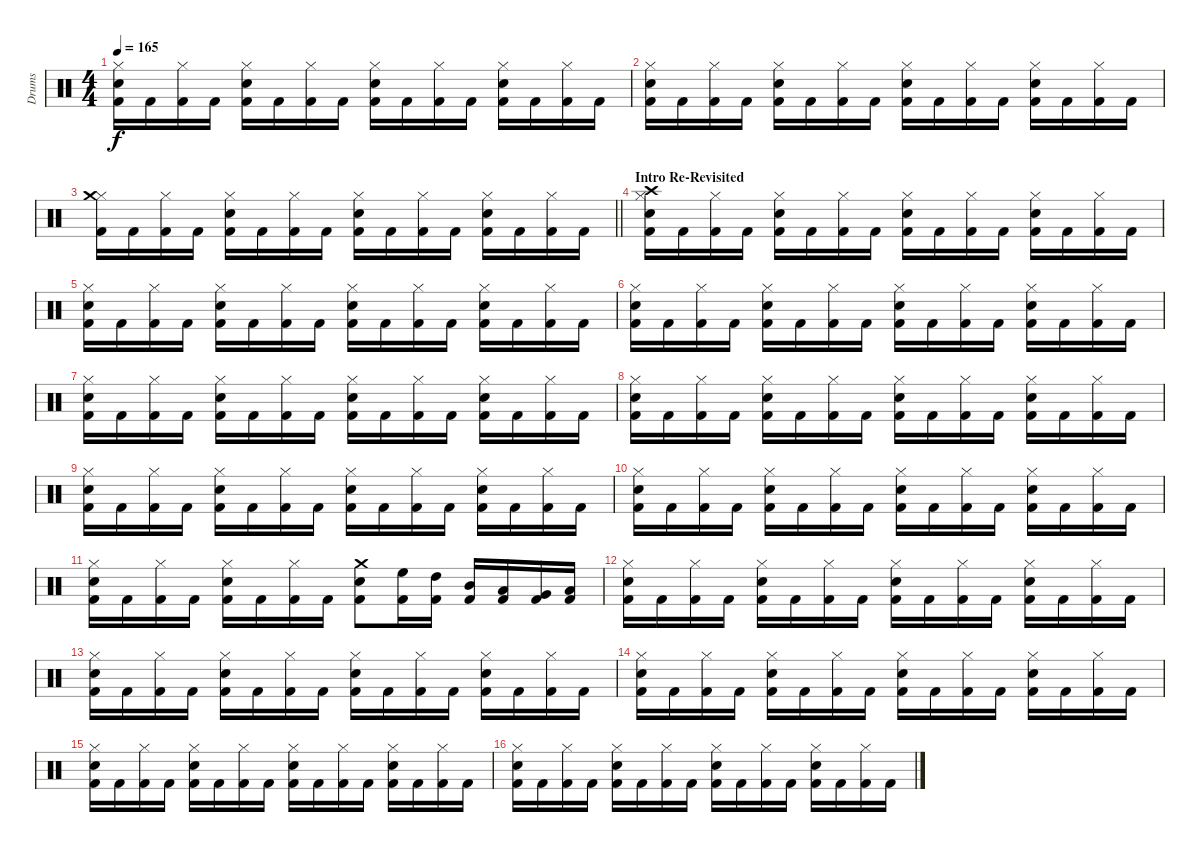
\track ("Drums" "Drums") {instrument percussion}
\staff {score}
\articulation defaults
\ts (4 4)
\tempo 165
\clef neutral
\ks c
("Hi-Hat (closed)" "Snare (hit) 2" "Kick (hit) 2").16{dy f} "Kick (hit) 2".16 ("Hi-Hat (closed)" "Kick (hit) 2").16 "Kick (hit) 2".16 ("Hi-Hat (closed)" "Snare (hit) 2" "Kick (hit) 2").16 "Kick (hit) 2".16 ("Hi-Hat (closed)" "Kick (hit) 2").16 "Kick (hit) 2".16 ("Hi-Hat (closed)" "Snare (hit) 2" "Kick (hit) 2").16 "Kick (hit) 2".16 ("Hi-Hat (closed)" "Kick (hit) 2").16 "Kick (hit) 2".16 ("Hi-Hat (closed)" "Snare (hit) 2" "Kick (hit) 2").16 "Kick (hit) 2".16 ("Hi-Hat (closed)" "Kick (hit) 2").16 "Kick (hit) 2".16 |
("Hi-Hat (closed)" "Snare (hit) 2" "Kick (hit) 2").16 "Kick (hit) 2".16 ("Hi-Hat (closed)" "Kick (hit) 2").16 "Kick (hit) 2".16 ("Hi-Hat (closed)" "Snare (hit) 2" "Kick (hit) 2").16 "Kick (hit) 2".16 ("Hi-Hat (closed)" "Kick (hit) 2").16 "Kick (hit) 2".16 ("Hi-Hat (closed)" "Snare (hit) 2" "Kick (hit) 2").16 "Kick (hit) 2".16 ("Hi-Hat (closed)" "Kick (hit) 2").16 "Kick (hit) 2".16 ("Hi-Hat (closed)" "Snare (hit) 2" "Kick (hit) 2").16 "Kick (hit) 2".16 ("Hi-Hat (closed)" "Kick (hit) 2").16 "Kick (hit) 2".16 |
\barLineRight lightlight
("Hi-Hat (closed)" "Crash medium (hit)" "Kick (hit) 2").16 "Kick (hit) 2".16 ("Hi-Hat (closed)" "Kick (hit) 2").16 "Kick (hit) 2".16 ("Hi-Hat (closed)" "Snare (hit) 2" "Kick (hit) 2").16 "Kick (hit) 2".16 ("Hi-Hat (closed)" "Kick (hit) 2").16 "Kick (hit) 2".16 ("Hi-Hat (closed)" "Snare (hit) 2" "Kick (hit) 2").16 "Kick (hit) 2".16 ("Hi-Hat (closed)" "Kick (hit) 2").16 "Kick (hit) 2".16 ("Hi-Hat (closed)" "Snare (hit) 2" "Kick (hit) 2").16 "Kick (hit) 2".16 ("Hi-Hat (closed)" "Kick (hit) 2").16 "Kick (hit) 2".16 |
\section ("" "Intro Re-Revisited")
("Hi-Hat (closed)" "Snare (hit) 2" "Crash high (hit)" "Kick (hit) 2").16 "Kick (hit) 2".16 ("Hi-Hat (closed)" "Kick (hit) 2").16 "Kick (hit) 2".16 ("Hi-Hat (closed)" "Snare (hit) 2" "Kick (hit) 2").16 "Kick (hit) 2".16 ("Hi-Hat (closed)" "Kick (hit) 2").16 "Kick (hit) 2".16 ("Hi-Hat (closed)" "Snare (hit) 2" "Kick (hit) 2").16 "Kick (hit) 2".16 ("Hi-Hat (closed)" "Kick (hit) 2").16 "Kick (hit) 2".16 ("Hi-Hat (closed)" "Snare (hit) 2" "Kick (hit) 2").16 "Kick (hit) 2".16 ("Hi-Hat (closed)" "Kick (hit) 2").16 "Kick (hit) 2".16 |
("Hi-Hat (closed)" "Snare (hit) 2" "Kick (hit) 2").16 "Kick (hit) 2".16 ("Hi-Hat (closed)" "Kick (hit) 2").16 "Kick (hit) 2".16 ("Hi-Hat (closed)" "Snare (hit) 2" "Kick (hit) 2").16 "Kick (hit) 2".16 ("Hi-Hat (closed)" "Kick (hit) 2").16 "Kick (hit) 2".16 ("Hi-Hat (closed)" "Snare (hit) 2" "Kick (hit) 2").16 "Kick (hit) 2".16 ("Hi-Hat (closed)" "Kick (hit) 2").16 "Kick (hit) 2".16 ("Hi-Hat (closed)" "Snare (hit) 2" "Kick (hit) 2").16 "Kick (hit) 2".16 ("Hi-Hat (closed)" "Kick (hit) 2").16 "Kick (hit) 2".16 |
("Hi-Hat (closed)" "Snare (hit) 2" "Kick (hit) 2").16 "Kick (hit) 2".16 ("Hi-Hat (closed)" "Kick (hit) 2").16 "Kick (hit) 2".16 ("Hi-Hat (closed)" "Snare (hit) 2" "Kick (hit) 2").16 "Kick (hit) 2".16 ("Hi-Hat (closed)" "Kick (hit) 2").16 "Kick (hit) 2".16 ("Hi-Hat (closed)" "Snare (hit) 2" "Kick (hit) 2").16 "Kick (hit) 2".16 ("Hi-Hat (closed)" "Kick (hit) 2").16 "Kick (hit) 2".16 ("Hi-Hat (closed)" "Snare (hit) 2" "Kick (hit) 2").16 "Kick (hit) 2".16 ("Hi-Hat (closed)" "Kick (hit) 2").16 "Kick (hit) 2".16 |
("Hi-Hat (closed)" "Snare (hit) 2" "Kick (hit) 2").16 "Kick (hit) 2".16 ("Hi-Hat (closed)" "Kick (hit) 2").16 "Kick (hit) 2".16 ("Hi-Hat (closed)" "Snare (hit) 2" "Kick (hit) 2").16 "Kick (hit) 2".16 ("Hi-Hat (closed)" "Kick (hit) 2").16 "Kick (hit) 2".16 ("Hi-Hat (closed)" "Snare (hit) 2" "Kick (hit) 2").16 "Kick (hit) 2".16 ("Hi-Hat (closed)" "Kick (hit) 2").16 "Kick (hit) 2".16 ("Hi-Hat (closed)" "Snare (hit) 2" "Kick (hit) 2").16 "Kick (hit) 2".16 ("Hi-Hat (closed)" "Kick (hit) 2").16 "Kick (hit) 2".16 |
("Hi-Hat (closed)" "Snare (hit) 2" "Kick (hit) 2").16 "Kick (hit) 2".16 ("Hi-Hat (closed)" "Kick (hit) 2").16 "Kick (hit) 2".16 ("Hi-Hat (closed)" "Snare (hit) 2" "Kick (hit) 2").16 "Kick (hit) 2".16 ("Hi-Hat (closed)" "Kick (hit) 2").16 "Kick (hit) 2".16 ("Hi-Hat (closed)" "Snare (hit) 2" "Kick (hit) 2").16 "Kick (hit) 2".16 ("Hi-Hat (closed)" "Kick (hit) 2").16 "Kick (hit) 2".16 ("Hi-Hat (closed)" "Snare (hit) 2" "Kick (hit) 2").16 "Kick (hit) 2".16 ("Hi-Hat (closed)" "Kick (hit) 2").16 "Kick (hit) 2".16 |
("Hi-Hat (closed)" "Snare (hit) 2" "Kick (hit) 2").16 "Kick (hit) 2".16 ("Hi-Hat (closed)" "Kick (hit) 2").16 "Kick (hit) 2".16 ("Hi-Hat (closed)" "Snare (hit) 2" "Kick (hit) 2").16 "Kick (hit) 2".16 ("Hi-Hat (closed)" "Kick (hit) 2").16 "Kick (hit) 2".16 ("Hi-Hat (closed)" "Snare (hit) 2" "Kick (hit) 2").16 "Kick (hit) 2".16 ("Hi-Hat (closed)" "Kick (hit) 2").16 "Kick (hit) 2".16 ("Hi-Hat (closed)" "Snare (hit) 2" "Kick (hit) 2").16 "Kick (hit) 2".16 ("Hi-Hat (closed)" "Kick (hit) 2").16 "Kick (hit) 2".16 |
("Hi-Hat (closed)" "Snare (hit) 2" "Kick (hit) 2").16 "Kick (hit) 2".16 ("Hi-Hat (closed)" "Kick (hit) 2").16 "Kick (hit) 2".16 ("Hi-Hat (closed)" "Snare (hit) 2" "Kick (hit) 2").16 "Kick (hit) 2".16 ("Hi-Hat (closed)" "Kick (hit) 2").16 "Kick (hit) 2".16 ("Hi-Hat (closed)" "Snare (hit) 2" "Kick (hit) 2").16 "Kick (hit) 2".16 ("Hi-Hat (closed)" "Kick (hit) 2").16 "Kick (hit) 2".16 ("Hi-Hat (closed)" "Snare (hit) 2" "Kick (hit) 2").16 "Kick (hit) 2".16 ("Hi-Hat (closed)" "Kick (hit) 2").16 "Kick (hit) 2".16 |
("Hi-Hat (closed)" "Snare (hit) 2" "Kick (hit) 2").16 "Kick (hit) 2".16 ("Hi-Hat (closed)" "Kick (hit) 2").16 "Kick (hit) 2".16 ("Hi-Hat (closed)" "Snare (hit) 2" "Kick (hit) 2").16 "Kick (hit) 2".16 ("Hi-Hat (closed)" "Kick (hit) 2").16 "Kick (hit) 2".16 ("Crash medium (hit)" "Snare (hit) 2" "Kick (hit) 2").8 ("High Floor Tom (hit)" "Kick (hit) 2").16 ("High Tom (hit)" "Kick (hit) 2").16 ("Mid Tom (hit)" "Kick (hit) 2").16 ("Low Tom (hit)" "Kick (hit) 2").16 ("Very Low Tom (hit)" "Kick (hit) 2").16 ("Low Floor Tom (hit)" "Kick (hit) 2").16 |
("Hi-Hat (closed)" "Snare (hit) 2" "Kick (hit) 2").16 "Kick (hit) 2".16 ("Hi-Hat (closed)" "Kick (hit) 2").16 "Kick (hit) 2".16 ("Hi-Hat (closed)" "Snare (hit) 2" "Kick (hit) 2").16 "Kick (hit) 2".16 ("Hi-Hat (closed)" "Kick (hit) 2").16 "Kick (hit) 2".16 ("Hi-Hat (closed)" "Snare (hit) 2" "Kick (hit) 2").16 "Kick (hit) 2".16 ("Hi-Hat (closed)" "Kick (hit) 2").16 "Kick (hit) 2".16 ("Hi-Hat (closed)" "Snare (hit) 2" "Kick (hit) 2").16 "Kick (hit) 2".16 ("Hi-Hat (closed)" "Kick (hit) 2").16 "Kick (hit) 2".16 |
("Hi-Hat (closed)" "Snare (hit) 2" "Kick (hit) 2").16 "Kick (hit) 2".16 ("Hi-Hat (closed)" "Kick (hit) 2").16 "Kick (hit) 2".16 ("Hi-Hat (closed)" "Snare (hit) 2" "Kick (hit) 2").16 "Kick (hit) 2".16 ("Hi-Hat (closed)" "Kick (hit) 2").16 "Kick (hit) 2".16 ("Hi-Hat (closed)" "Snare (hit) 2" "Kick (hit) 2").16 "Kick (hit) 2".16 ("Hi-Hat (closed)" "Kick (hit) 2").16 "Kick (hit) 2".16 ("Hi-Hat (closed)" "Snare (hit) 2" "Kick (hit) 2").16 "Kick (hit) 2".16 ("Hi-Hat (closed)" "Kick (hit) 2").16 "Kick (hit) 2".16 |
("Hi-Hat (closed)" "Snare (hit) 2" "Kick (hit) 2").16 "Kick (hit) 2".16 ("Hi-Hat (closed)" "Kick (hit) 2").16 "Kick (hit) 2".16 ("Hi-Hat (closed)" "Snare (hit) 2" "Kick (hit) 2").16 "Kick (hit) 2".16 ("Hi-Hat (closed)" "Kick (hit) 2").16 "Kick (hit) 2".16 ("Hi-Hat (closed)" "Snare (hit) 2" "Kick (hit) 2").16 "Kick (hit) 2".16 ("Hi-Hat (closed)" "Kick (hit) 2").16 "Kick (hit) 2".16 ("Hi-Hat (closed)" "Snare (hit) 2" "Kick (hit) 2").16 "Kick (hit) 2".16 ("Hi-Hat (closed)" "Kick (hit) 2").16 "Kick (hit) 2".16 |
("Hi-Hat (closed)" "Snare (hit) 2" "Kick (hit) 2").16 "Kick (hit) 2".16 ("Hi-Hat (closed)" "Kick (hit) 2").16 "Kick (hit) 2".16 ("Hi-Hat (closed)" "Snare (hit) 2" "Kick (hit) 2").16 "Kick (hit) 2".16 ("Hi-Hat (closed)" "Kick (hit) 2").16 "Kick (hit) 2".16 ("Hi-Hat (closed)" "Snare (hit) 2" "Kick (hit) 2").16 "Kick (hit) 2".16 ("Hi-Hat (closed)" "Kick (hit) 2").16 "Kick (hit) 2".16 ("Hi-Hat (closed)" "Snare (hit) 2" "Kick (hit) 2").16 "Kick (hit) 2".16 ("Hi-Hat (closed)" "Kick (hit) 2").16 "Kick (hit) 2".16 |
("Hi-Hat (closed)" "Snare (hit) 2" "Kick (hit) 2").16 "Kick (hit) 2".16 ("Hi-Hat (closed)" "Kick (hit) 2").16 "Kick (hit) 2".16 ("Hi-Hat (closed)" "Snare (hit) 2" "Kick (hit) 2").16 "Kick (hit) 2".16 ("Hi-Hat (closed)" "Kick (hit) 2").16 "Kick (hit) 2".16 ("Hi-Hat (closed)" "Snare (hit) 2" "Kick (hit) 2").16 "Kick (hit) 2".16 ("Hi-Hat (closed)" "Kick (hit) 2").16 "Kick (hit) 2".16 ("Hi-Hat (closed)" "Snare (hit) 2" "Kick (hit) 2").16 "Kick (hit) 2".16 ("Hi-Hat (closed)" "Kick (hit) 2").16 "Kick (hit) 2".16
